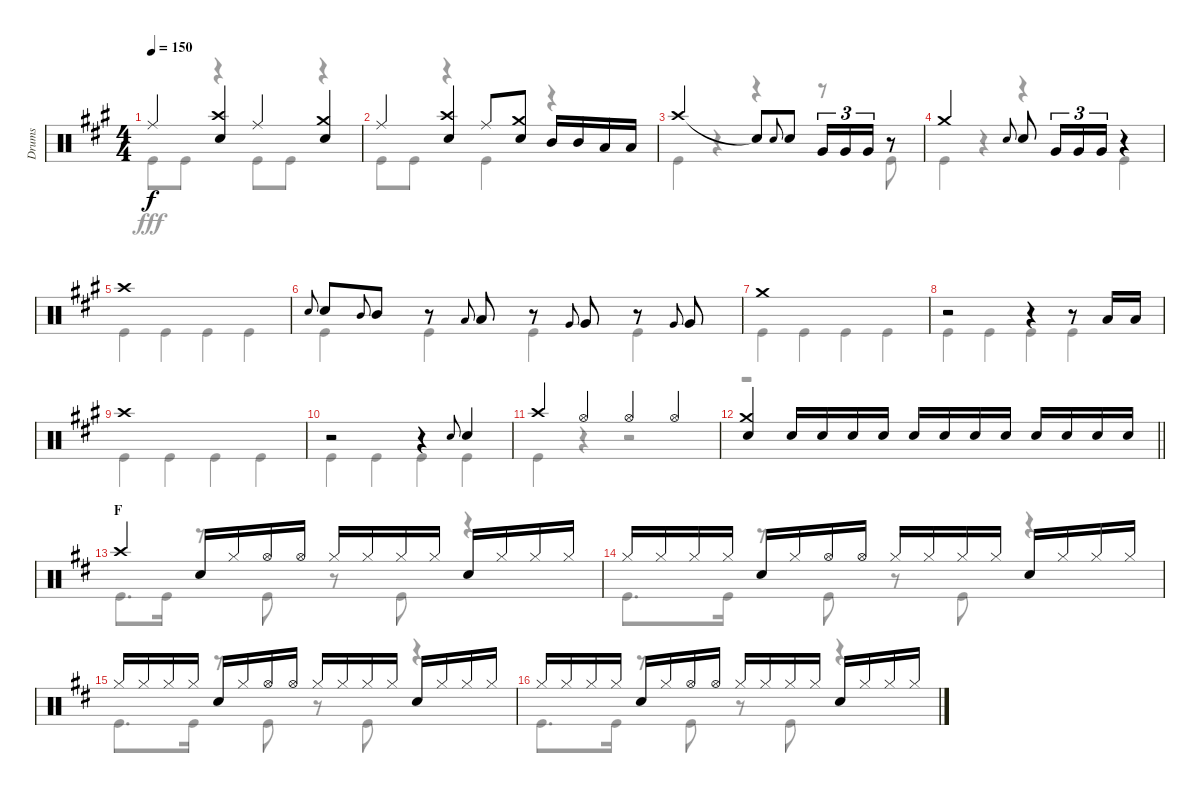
\track ("Drums" "Drums") {instrument percussion}
\staff {score}
\articulation defaults
\voice
\ts (4 4)
\tempo 150
\clef neutral
\ks a "Ride (middle)".4{dy f}
("Crash high (hit)" "Snare (hit) 2").4 "Ride (middle)".4 ("Crash medium (hit)" "Snare (hit) 2").4 |
"Ride (middle)".4 ("Crash high (hit)" "Snare (hit) 2").4 "Ride (middle)".8 ("Crash medium (hit)" "Snare (hit) 2").8 "Mid Tom (hit)".16 "Mid Tom (hit)".16 "Low Tom (hit)".16 "Low Tom (hit)".16 |
"Crash high (hit)".2 "Snare (hit)"{t}.8 "Snare (hit) 2".8{gr onbeat} "Snare (hit) 2".8 "Very Low Tom (hit)".16{tu (3 2)} "Very Low Tom (hit)".16{tu (3 2)} "Very Low Tom (hit)".16{tu (3 2)} r.8 |
"Crash medium (hit)".2 "Snare (hit) 2".8{gr onbeat} "Snare (hit) 2".8 "Very Low Tom (hit)".16{tu (3 2)} "Very Low Tom (hit)".16{tu (3 2)} "Very Low Tom (hit)".16{tu (3 2)} r.4 |
"Crash high (hit)".1 |
"Snare (hit) 2".8{gr onbeat} "Snare (hit) 2".8 "Mid Tom (hit)".8{gr onbeat} "Mid Tom (hit)".8 r.8 "Low Tom (hit)".8{gr onbeat} "Low Tom (hit)".8 r.8 "Very Low Tom (hit)".8{gr onbeat} "Very Low Tom (hit)".8 r.8 "Very Low Tom (hit)".8{gr onbeat} "Very Low Tom (hit)".8 |
"Crash medium (hit)".1 |
r.2 r.4 r.8 "Low Tom (hit)".16 "Low Tom (hit)".16 |
"Crash high (hit)".1 |
r.2 r.4 "Snare (hit) 2".8{gr onbeat} "Snare (hit) 2".4 |
"Crash high (hit)".4 "Hi-Hat (open)".4 "Hi-Hat (open)".4 "Hi-Hat (open)".4 |
\barLineRight lightlight
("Crash medium (hit)" "Snare (hit) 2").4 "Snare (hit) 2".16 "Snare (hit) 2".16 "Snare (hit) 2".16 "Snare (hit) 2".16 "Snare (hit) 2".16 "Snare (hit) 2".16 "Snare (hit) 2".16 "Snare (hit) 2".16 "Snare (hit) 2".16 "Snare (hit) 2".16 "Snare (hit) 2".16 "Snare (hit) 2".16 |
\section ("" "F")
\ks d "Crash high (hit)".4 "Snare (hit) 2".16 "Hi-Hat (closed)".16 "Hi-Hat (open)".16 "Hi-Hat (open)".16 "Hi-Hat (closed)".16 "Hi-Hat (closed)".16 "Hi-Hat (closed)".16 "Hi-Hat (closed)".16 "Snare (hit) 2".16 "Hi-Hat (closed)".16 "Hi-Hat (closed)".16 "Hi-Hat (closed)".16
|
"Hi-Hat (closed)".16 "Hi-Hat (closed)".16 "Hi-Hat (closed)".16 "Hi-Hat (closed)".16 "Snare (hit) 2".16 "Hi-Hat (closed)".16 "Hi-Hat (open)".16 "Hi-Hat (open)".16 "Hi-Hat (closed)".16 "Hi-Hat (closed)".16 "Hi-Hat (closed)".16 "Hi-Hat (closed)".16 "Snare (hit) 2".16 "Hi-Hat (closed)".16 "Hi-Hat (closed)".16 "Hi-Hat (closed)".16 |
"Hi-Hat (closed)".16 "Hi-Hat (closed)".16 "Hi-Hat (closed)".16 "Hi-Hat (closed)".16 "Snare (hit) 2".16 "Hi-Hat (closed)".16 "Hi-Hat (open)".16 "Hi-Hat (open)".16 "Hi-Hat (closed)".16 "Hi-Hat (closed)".16 "Hi-Hat (closed)".16 "Hi-Hat (closed)".16 "Snare (hit) 2".16 "Hi-Hat (closed)".16 "Hi-Hat (closed)".16 "Hi-Hat (closed)".16 |
"Hi-Hat (closed)".16 "Hi-Hat (closed)".16 "Hi-Hat (closed)".16 "Hi-Hat (closed)".16 "Snare (hit) 2".16 "Hi-Hat (closed)".16 "Hi-Hat (open)".16 "Hi-Hat (open)".16 "Hi-Hat (closed)".16 "Hi-Hat (closed)".16 "Hi-Hat (closed)".16 "Hi-Hat (closed)".16 "Snare (hit) 2".16 "Hi-Hat (closed)".16 "Hi-Hat (closed)".16 "Hi-Hat (closed)".16
\voice
\clef neutral
\ottava regular
\simile none
\ks a "Kick (hit)".8{dy fff} "Kick (hit)".8
r.4 "Kick (hit)".8 "Kick (hit)".8 r.4 |
"Kick (hit)".8 "Kick (hit)".8 r.4 "Kick (hit)".4 r.4 |
"Kick (hit)".4 r.4 r.4 r.8 "Kick (hit)".8 |
"Kick (hit)".4 r.4 r.4 "Kick (hit)".4 |
"Kick (hit)".4 "Kick (hit)".4 "Kick (hit)".4 "Kick (hit)".4 |
"Kick (hit)".4 "Kick (hit)".4 "Kick (hit)".4 "Kick (hit)".4 |
"Kick (hit)".4 "Kick (hit)".4 "Kick (hit)".4 "Kick (hit)".4 |
"Kick (hit)".4 "Kick (hit)".4 "Kick (hit)".4 "Kick (hit)".4 |
"Kick (hit)".4 "Kick (hit)".4 "Kick (hit)".4 "Kick (hit)".4 |
"Kick (hit)".4 "Kick (hit)".4 "Kick (hit)".4 "Kick (hit)".4 |
"Kick (hit)".4 r.4 r.2 |
\barLineRight lightlight
r.1 |
\ks d "Kick (hit)".8{d} "Kick (hit)".16
r.8 "Kick (hit)".8 r.8 "Kick (hit)".8 r.4 |
"Kick (hit)".8{d} "Kick (hit)".16 r.8 "Kick (hit)".8 r.8 "Kick (hit)".8 r.4 |
"Kick (hit)".8{d} "Kick (hit)".16 r.8 "Kick (hit)".8 r.8 "Kick (hit)".8 r.4 |
"Kick (hit)".8{d} "Kick (hit)".16 r.8 "Kick (hit)".8 r.8 "Kick (hit)".8 r.4
